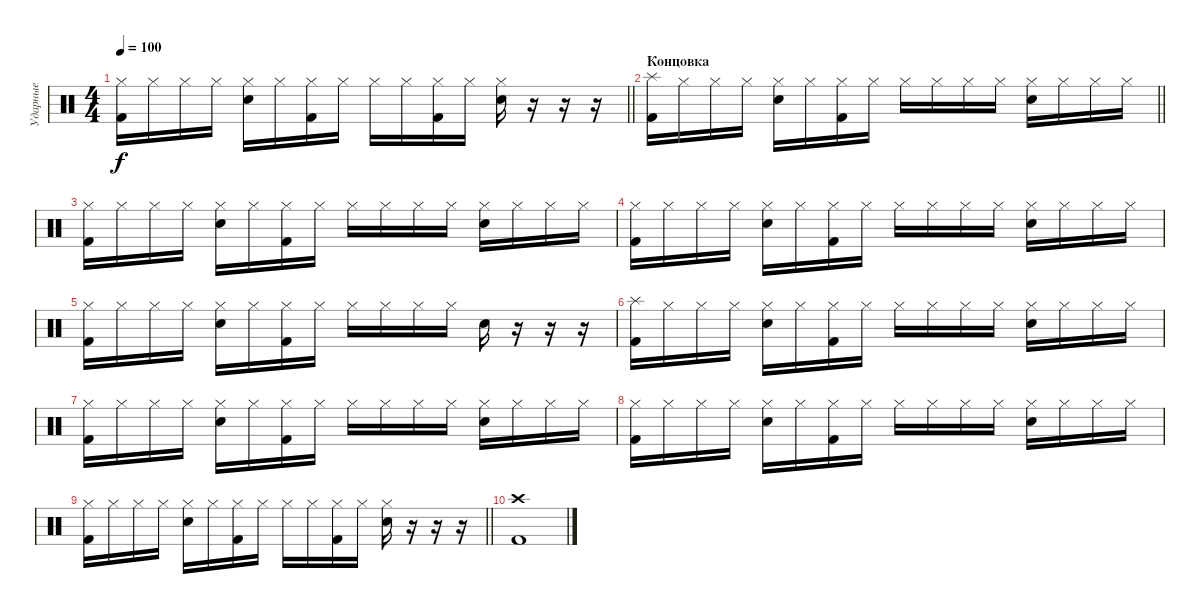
\track ("Ударные" "Ударные") {instrument percussion}
\staff {score}
\articulation defaults
\ts (4 4)
\tempo 100
\clef neutral
\barLineRight lightlight
\ks c
("Hi-Hat (closed)" "Kick (hit) 2").16{dy f} "Hi-Hat (closed)".16 "Hi-Hat (closed)".16 "Hi-Hat (closed)".16 ("Hi-Hat (closed)" "Electric Snare (hit)").16 "Hi-Hat (closed)".16 ("Hi-Hat (closed)" "Kick (hit) 2").16 "Hi-Hat (closed)".16 "Hi-Hat (closed)".16 "Hi-Hat (closed)".16 ("Hi-Hat (closed)" "Kick (hit) 2").16 "Hi-Hat (closed)".16 ("Hi-Hat (closed)" "Electric Snare (hit)").16 r.16 r.16 r.16 |
\section ("" "Концовка")
\barLineRight lightlight
("Splash (hit)" "Kick (hit) 2").16 "Hi-Hat (closed)".16 "Hi-Hat (closed)".16 "Hi-Hat (closed)".16 ("Hi-Hat (closed)" "Electric Snare (hit)").16 "Hi-Hat (closed)".16 ("Hi-Hat (closed)" "Kick (hit) 2").16 "Hi-Hat (closed)".16 "Hi-Hat (closed)".16 "Hi-Hat (closed)".16 "Hi-Hat (closed)".16 "Hi-Hat (closed)".16 ("Hi-Hat (closed)" "Electric Snare (hit)").16 "Hi-Hat (closed)".16 "Hi-Hat (closed)".16 "Hi-Hat (closed)".16 |
\section ("" "")
("Hi-Hat (closed)" "Kick (hit) 2").16 "Hi-Hat (closed)".16 "Hi-Hat (closed)".16 "Hi-Hat (closed)".16 ("Hi-Hat (closed)" "Electric Snare (hit)").16 "Hi-Hat (closed)".16 ("Hi-Hat (closed)" "Kick (hit) 2").16 "Hi-Hat (closed)".16 "Hi-Hat (closed)".16 "Hi-Hat (closed)".16 "Hi-Hat (closed)".16 "Hi-Hat (closed)".16 ("Hi-Hat (closed)" "Electric Snare (hit)").16 "Hi-Hat (closed)".16 "Hi-Hat (closed)".16 "Hi-Hat (closed)".16 |
("Hi-Hat (closed)" "Kick (hit) 2").16 "Hi-Hat (closed)".16 "Hi-Hat (closed)".16 "Hi-Hat (closed)".16 ("Hi-Hat (closed)" "Electric Snare (hit)").16 "Hi-Hat (closed)".16 ("Hi-Hat (closed)" "Kick (hit) 2").16 "Hi-Hat (closed)".16 "Hi-Hat (closed)".16 "Hi-Hat (closed)".16 "Hi-Hat (closed)".16 "Hi-Hat (closed)".16 ("Hi-Hat (closed)" "Electric Snare (hit)").16 "Hi-Hat (closed)".16 "Hi-Hat (closed)".16 "Hi-Hat (closed)".16 |
("Hi-Hat (closed)" "Kick (hit) 2").16 "Hi-Hat (closed)".16 "Hi-Hat (closed)".16 "Hi-Hat (closed)".16 ("Hi-Hat (closed)" "Electric Snare (hit)").16 "Hi-Hat (closed)".16 ("Hi-Hat (closed)" "Kick (hit) 2").16 "Hi-Hat (closed)".16 "Hi-Hat (closed)".16 "Hi-Hat (closed)".16 "Hi-Hat (closed)".16 "Hi-Hat (closed)".16 "Electric Snare (hit)".16 r.16 r.16 r.16 |
("Splash (hit)" "Kick (hit) 2").16 "Hi-Hat (closed)".16 "Hi-Hat (closed)".16 "Hi-Hat (closed)".16 ("Hi-Hat (closed)" "Electric Snare (hit)").16 "Hi-Hat (closed)".16 ("Hi-Hat (closed)" "Kick (hit) 2").16 "Hi-Hat (closed)".16 "Hi-Hat (closed)".16 "Hi-Hat (closed)".16 "Hi-Hat (closed)".16 "Hi-Hat (closed)".16 ("Hi-Hat (closed)" "Electric Snare (hit)").16 "Hi-Hat (closed)".16 "Hi-Hat (closed)".16 "Hi-Hat (closed)".16 |
("Hi-Hat (closed)" "Kick (hit) 2").16 "Hi-Hat (closed)".16 "Hi-Hat (closed)".16 "Hi-Hat (closed)".16 ("Hi-Hat (closed)" "Electric Snare (hit)").16 "Hi-Hat (closed)".16 ("Hi-Hat (closed)" "Kick (hit) 2").16 "Hi-Hat (closed)".16 "Hi-Hat (closed)".16 "Hi-Hat (closed)".16 "Hi-Hat (closed)".16 "Hi-Hat (closed)".16 ("Hi-Hat (closed)" "Electric Snare (hit)").16 "Hi-Hat (closed)".16 "Hi-Hat (closed)".16 "Hi-Hat (closed)".16 |
("Hi-Hat (closed)" "Kick (hit) 2").16 "Hi-Hat (closed)".16 "Hi-Hat (closed)".16 "Hi-Hat (closed)".16 ("Hi-Hat (closed)" "Electric Snare (hit)").16 "Hi-Hat (closed)".16 ("Hi-Hat (closed)" "Kick (hit) 2").16 "Hi-Hat (closed)".16 "Hi-Hat (closed)".16 "Hi-Hat (closed)".16 "Hi-Hat (closed)".16 "Hi-Hat (closed)".16 ("Hi-Hat (closed)" "Electric Snare (hit)").16 "Hi-Hat (closed)".16 "Hi-Hat (closed)".16 "Hi-Hat (closed)".16 |
\barLineRight lightlight
("Hi-Hat (closed)" "Kick (hit) 2").16 "Hi-Hat (closed)".16 "Hi-Hat (closed)".16 "Hi-Hat (closed)".16 ("Hi-Hat (closed)" "Electric Snare (hit)").16 "Hi-Hat (closed)".16 ("Hi-Hat (closed)" "Kick (hit) 2").16 "Hi-Hat (closed)".16 "Hi-Hat (closed)".16 "Hi-Hat (closed)".16 ("Hi-Hat (closed)" "Kick (hit) 2").16 "Hi-Hat (closed)".16 ("Hi-Hat (closed)" "Electric Snare (hit)").16 r.16 r.16 r.16 |
("Crash high (hit)" "Kick (hit) 2").1
